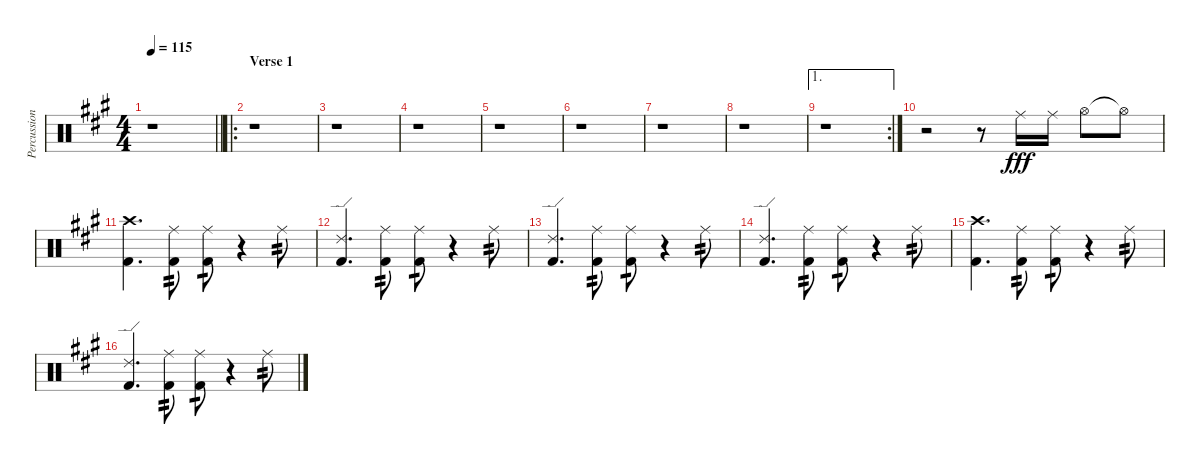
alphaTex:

\track ("Percussion" "Percussion") {instrument percussion}
\staff {score}
\articulation defaults
\ts (4 4)
\tempo 115
\clef neutral
\barLineRight lightlight
\ks a
r.1{dy fff} |
\ro
\section ("" "Verse 1")
r.1 |
r.1 |
r.1 |
r.1 |
r.1 |
r.1 |
r.1 |
\ae 1
\rc 2
r.1 |
r.2 r.8 "Ride (middle)".16 "Ride (middle)".16 "Hi-Hat (open)".8 "Hi-Hat (open)"{t}.8 |
("Crash high (hit)" "Kick (hit) 2").4{d} ("Ride (middle)" "Kick (hit) 2").8{tp 2} ("Ride (middle)" "Kick (hit) 2").8{tp 1} r.4 "Ride (middle)".8{tp 2} |
("Ride (edge) 2" "Kick (hit) 2").4{d} ("Ride (middle)" "Kick (hit) 2").8{tp 2} ("Ride (middle)" "Kick (hit) 2").8{tp 1} r.4 "Ride (middle)".8{tp 2} |
("Ride (edge) 2" "Kick (hit) 2").4{d} ("Ride (middle)" "Kick (hit) 2").8{tp 2} ("Ride (middle)" "Kick (hit) 2").8{tp 1} r.4 "Ride (middle)".8{tp 2} |
("Ride (edge) 2" "Kick (hit) 2").4{d} ("Ride (middle)" "Kick (hit) 2").8{tp 2} ("Ride (middle)" "Kick (hit) 2").8{tp 1} r.4 "Ride (middle)".8{tp 2} |
("Crash high (hit)" "Kick (hit) 2").4{d} ("Ride (middle)" "Kick (hit) 2").8{tp 2} ("Ride (middle)" "Kick (hit) 2").8{tp 1} r.4 "Ride (middle)".8{tp 2} |
("Ride (edge) 2" "Kick (hit) 2").4{d} ("Ride (middle)" "Kick (hit) 2").8{tp 2} ("Ride (middle)" "Kick (hit) 2").8{tp 1} r.4 "Ride (middle)".8{tp 2}
